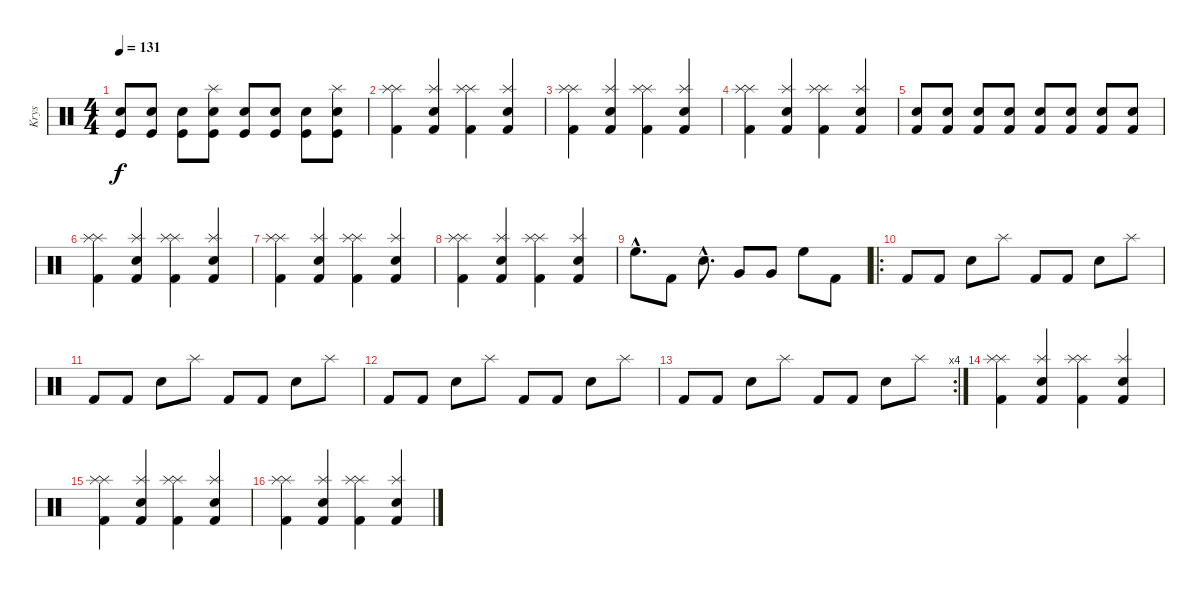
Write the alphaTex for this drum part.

\track ("Krys" "Krys") {instrument percussion}
\staff {score}
\articulation defaults
\ts (4 4)
\tempo 131
\clef neutral
\ks c
("Snare (hit) 2" "Kick (hit)").8{dy f} ("Snare (hit) 2" "Kick (hit)").8 ("Snare (hit) 2" "Kick (hit)").8 ("Splash (hit)" "Snare (hit) 2" "Kick (hit)").8 ("Snare (hit) 2" "Kick (hit)").8 ("Snare (hit) 2" "Kick (hit)").8 ("Snare (hit) 2" "Kick (hit)").8 ("Splash (hit)" "Snare (hit) 2" "Kick (hit)").8 |
("Splash (hit)" "Splash (hit)" "Kick (hit) 2").4 ("Snare (hit) 2" "Splash (hit)" "Kick (hit) 2").4 ("Splash (hit)" "Splash (hit)" "Kick (hit) 2").4 ("Snare (hit) 2" "Splash (hit)" "Kick (hit) 2").4 |
("Splash (hit)" "Splash (hit)" "Kick (hit) 2").4 ("Snare (hit) 2" "Splash (hit)" "Kick (hit) 2").4 ("Splash (hit)" "Splash (hit)" "Kick (hit) 2").4 ("Snare (hit) 2" "Splash (hit)" "Kick (hit) 2").4 |
("Splash (hit)" "Splash (hit)" "Kick (hit) 2").4 ("Snare (hit) 2" "Splash (hit)" "Kick (hit) 2").4 ("Splash (hit)" "Splash (hit)" "Kick (hit) 2").4 ("Snare (hit) 2" "Splash (hit)" "Kick (hit) 2").4 |
("Snare (hit) 2" "Kick (hit) 2").8 ("Snare (hit) 2" "Kick (hit) 2").8 ("Snare (hit) 2" "Kick (hit) 2").8 ("Snare (hit) 2" "Kick (hit) 2").8 ("Snare (hit) 2" "Kick (hit) 2").8 ("Snare (hit) 2" "Kick (hit) 2").8 ("Snare (hit) 2" "Kick (hit) 2").8 ("Snare (hit) 2" "Kick (hit) 2").8 |
("Splash (hit)" "Splash (hit)" "Kick (hit) 2").4 ("Snare (hit) 2" "Splash (hit)" "Kick (hit) 2").4 ("Splash (hit)" "Splash (hit)" "Kick (hit) 2").4 ("Snare (hit) 2" "Splash (hit)" "Kick (hit) 2").4 |
("Splash (hit)" "Splash (hit)" "Kick (hit) 2").4 ("Snare (hit) 2" "Splash (hit)" "Kick (hit) 2").4 ("Splash (hit)" "Splash (hit)" "Kick (hit) 2").4 ("Snare (hit) 2" "Splash (hit)" "Kick (hit) 2").4 |
("Splash (hit)" "Splash (hit)" "Kick (hit) 2").4 ("Snare (hit) 2" "Splash (hit)" "Kick (hit) 2").4 ("Splash (hit)" "Splash (hit)" "Kick (hit) 2").4 ("Snare (hit) 2" "Splash (hit)" "Kick (hit) 2").4 |
"High Floor Tom (hit)"{hac}.8{d} "Kick (hit) 2".8 "Snare (hit) 2"{hac}.8{d} "Very Low Tom (hit)".8 "Very Low Tom (hit)".8 "High Floor Tom (hit)".8 "Kick (hit) 2".8 |
\ro "Kick (hit) 2".8 "Kick (hit) 2".8 "Snare (hit) 2".8 "Splash (hit)".8 "Kick (hit) 2".8 "Kick (hit) 2".8 "Snare (hit) 2".8 "Splash (hit)".8
|
"Kick (hit) 2".8 "Kick (hit) 2".8 "Snare (hit) 2".8 "Splash (hit)".8 "Kick (hit) 2".8 "Kick (hit) 2".8 "Snare (hit) 2".8 "Splash (hit)".8 |
"Kick (hit) 2".8 "Kick (hit) 2".8 "Snare (hit) 2".8 "Splash (hit)".8 "Kick (hit) 2".8 "Kick (hit) 2".8 "Snare (hit) 2".8 "Splash (hit)".8 |
\rc 4 "Kick (hit) 2".8 "Kick (hit) 2".8 "Snare (hit) 2".8 "Splash (hit)".8 "Kick (hit) 2".8 "Kick (hit) 2".8 "Snare (hit) 2".8 "Splash (hit)".8
|
("Splash (hit)" "Splash (hit)" "Kick (hit) 2").4 ("Snare (hit) 2" "Splash (hit)" "Kick (hit) 2").4 ("Splash (hit)" "Splash (hit)" "Kick (hit) 2").4 ("Snare (hit) 2" "Splash (hit)" "Kick (hit) 2").4 |
("Splash (hit)" "Splash (hit)" "Kick (hit) 2").4 ("Snare (hit) 2" "Splash (hit)" "Kick (hit) 2").4 ("Splash (hit)" "Splash (hit)" "Kick (hit) 2").4 ("Snare (hit) 2" "Splash (hit)" "Kick (hit) 2").4 |
("Splash (hit)" "Splash (hit)" "Kick (hit) 2").4 ("Snare (hit) 2" "Splash (hit)" "Kick (hit) 2").4 ("Splash (hit)" "Splash (hit)" "Kick (hit) 2").4 ("Snare (hit) 2" "Splash (hit)" "Kick (hit) 2").4
